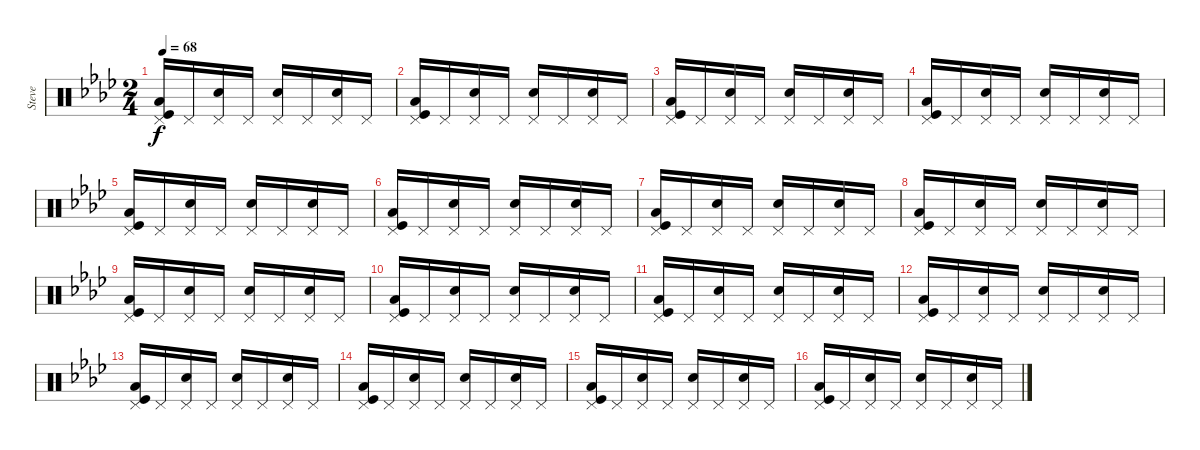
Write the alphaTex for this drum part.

\track ("Steve" "Steve") {instrument percussion}
\staff {score}
\articulation defaults
\ts (2 4)
\tempo 68
\clef neutral
\ks fminor
("Kick (hit)" "Pedal Hi-Hat (hit)" "Low Floor Tom (hit)").16{dy f} "Pedal Hi-Hat (hit)".16 ("Electric Snare (hit)" "Pedal Hi-Hat (hit)").16 "Pedal Hi-Hat (hit)".16 ("Electric Snare (hit)" "Pedal Hi-Hat (hit)").16 "Pedal Hi-Hat (hit)".16 ("Electric Snare (hit)" "Pedal Hi-Hat (hit)").16 "Pedal Hi-Hat (hit)".16 |
("Kick (hit)" "Pedal Hi-Hat (hit)" "Low Floor Tom (hit)").16 "Pedal Hi-Hat (hit)".16 ("Electric Snare (hit)" "Pedal Hi-Hat (hit)").16 "Pedal Hi-Hat (hit)".16 ("Electric Snare (hit)" "Pedal Hi-Hat (hit)").16 "Pedal Hi-Hat (hit)".16 ("Electric Snare (hit)" "Pedal Hi-Hat (hit)").16 "Pedal Hi-Hat (hit)".16 |
("Kick (hit)" "Pedal Hi-Hat (hit)" "Low Floor Tom (hit)").16 "Pedal Hi-Hat (hit)".16 ("Electric Snare (hit)" "Pedal Hi-Hat (hit)").16 "Pedal Hi-Hat (hit)".16 ("Electric Snare (hit)" "Pedal Hi-Hat (hit)").16 "Pedal Hi-Hat (hit)".16 ("Electric Snare (hit)" "Pedal Hi-Hat (hit)").16 "Pedal Hi-Hat (hit)".16 |
("Kick (hit)" "Pedal Hi-Hat (hit)" "Low Floor Tom (hit)").16 "Pedal Hi-Hat (hit)".16 ("Electric Snare (hit)" "Pedal Hi-Hat (hit)").16 "Pedal Hi-Hat (hit)".16 ("Electric Snare (hit)" "Pedal Hi-Hat (hit)").16 "Pedal Hi-Hat (hit)".16 ("Electric Snare (hit)" "Pedal Hi-Hat (hit)").16 "Pedal Hi-Hat (hit)".16 |
("Kick (hit)" "Pedal Hi-Hat (hit)" "Low Floor Tom (hit)").16 "Pedal Hi-Hat (hit)".16 ("Electric Snare (hit)" "Pedal Hi-Hat (hit)").16 "Pedal Hi-Hat (hit)".16 ("Electric Snare (hit)" "Pedal Hi-Hat (hit)").16 "Pedal Hi-Hat (hit)".16 ("Electric Snare (hit)" "Pedal Hi-Hat (hit)").16 "Pedal Hi-Hat (hit)".16 |
("Kick (hit)" "Pedal Hi-Hat (hit)" "Low Floor Tom (hit)").16 "Pedal Hi-Hat (hit)".16 ("Electric Snare (hit)" "Pedal Hi-Hat (hit)").16 "Pedal Hi-Hat (hit)".16 ("Electric Snare (hit)" "Pedal Hi-Hat (hit)").16 "Pedal Hi-Hat (hit)".16 ("Electric Snare (hit)" "Pedal Hi-Hat (hit)").16 "Pedal Hi-Hat (hit)".16 |
("Kick (hit)" "Pedal Hi-Hat (hit)" "Low Floor Tom (hit)").16 "Pedal Hi-Hat (hit)".16 ("Electric Snare (hit)" "Pedal Hi-Hat (hit)").16 "Pedal Hi-Hat (hit)".16 ("Electric Snare (hit)" "Pedal Hi-Hat (hit)").16 "Pedal Hi-Hat (hit)".16 ("Electric Snare (hit)" "Pedal Hi-Hat (hit)").16 "Pedal Hi-Hat (hit)".16 |
("Kick (hit)" "Pedal Hi-Hat (hit)" "Low Floor Tom (hit)").16 "Pedal Hi-Hat (hit)".16 ("Electric Snare (hit)" "Pedal Hi-Hat (hit)").16 "Pedal Hi-Hat (hit)".16 ("Electric Snare (hit)" "Pedal Hi-Hat (hit)").16 "Pedal Hi-Hat (hit)".16 ("Electric Snare (hit)" "Pedal Hi-Hat (hit)").16 "Pedal Hi-Hat (hit)".16 |
("Kick (hit)" "Pedal Hi-Hat (hit)" "Low Floor Tom (hit)").16 "Pedal Hi-Hat (hit)".16 ("Electric Snare (hit)" "Pedal Hi-Hat (hit)").16 "Pedal Hi-Hat (hit)".16 ("Electric Snare (hit)" "Pedal Hi-Hat (hit)").16 "Pedal Hi-Hat (hit)".16 ("Electric Snare (hit)" "Pedal Hi-Hat (hit)").16 "Pedal Hi-Hat (hit)".16 |
("Kick (hit)" "Pedal Hi-Hat (hit)" "Low Floor Tom (hit)").16 "Pedal Hi-Hat (hit)".16 ("Electric Snare (hit)" "Pedal Hi-Hat (hit)").16 "Pedal Hi-Hat (hit)".16 ("Electric Snare (hit)" "Pedal Hi-Hat (hit)").16 "Pedal Hi-Hat (hit)".16 ("Electric Snare (hit)" "Pedal Hi-Hat (hit)").16 "Pedal Hi-Hat (hit)".16 |
("Kick (hit)" "Pedal Hi-Hat (hit)" "Low Floor Tom (hit)").16 "Pedal Hi-Hat (hit)".16 ("Electric Snare (hit)" "Pedal Hi-Hat (hit)").16 "Pedal Hi-Hat (hit)".16 ("Electric Snare (hit)" "Pedal Hi-Hat (hit)").16 "Pedal Hi-Hat (hit)".16 ("Electric Snare (hit)" "Pedal Hi-Hat (hit)").16 "Pedal Hi-Hat (hit)".16 |
("Kick (hit)" "Pedal Hi-Hat (hit)" "Low Floor Tom (hit)").16 "Pedal Hi-Hat (hit)".16 ("Electric Snare (hit)" "Pedal Hi-Hat (hit)").16 "Pedal Hi-Hat (hit)".16 ("Electric Snare (hit)" "Pedal Hi-Hat (hit)").16 "Pedal Hi-Hat (hit)".16 ("Electric Snare (hit)" "Pedal Hi-Hat (hit)").16 "Pedal Hi-Hat (hit)".16 |
("Kick (hit)" "Pedal Hi-Hat (hit)" "Low Floor Tom (hit)").16 "Pedal Hi-Hat (hit)".16 ("Electric Snare (hit)" "Pedal Hi-Hat (hit)").16 "Pedal Hi-Hat (hit)".16 ("Electric Snare (hit)" "Pedal Hi-Hat (hit)").16 "Pedal Hi-Hat (hit)".16 ("Electric Snare (hit)" "Pedal Hi-Hat (hit)").16 "Pedal Hi-Hat (hit)".16 |
("Kick (hit)" "Pedal Hi-Hat (hit)" "Low Floor Tom (hit)").16 "Pedal Hi-Hat (hit)".16 ("Electric Snare (hit)" "Pedal Hi-Hat (hit)").16 "Pedal Hi-Hat (hit)".16 ("Electric Snare (hit)" "Pedal Hi-Hat (hit)").16 "Pedal Hi-Hat (hit)".16 ("Electric Snare (hit)" "Pedal Hi-Hat (hit)").16 "Pedal Hi-Hat (hit)".16 |
("Kick (hit)" "Pedal Hi-Hat (hit)" "Low Floor Tom (hit)").16 "Pedal Hi-Hat (hit)".16 ("Electric Snare (hit)" "Pedal Hi-Hat (hit)").16 "Pedal Hi-Hat (hit)".16 ("Electric Snare (hit)" "Pedal Hi-Hat (hit)").16 "Pedal Hi-Hat (hit)".16 ("Electric Snare (hit)" "Pedal Hi-Hat (hit)").16 "Pedal Hi-Hat (hit)".16 |
("Kick (hit)" "Pedal Hi-Hat (hit)" "Low Floor Tom (hit)").16 "Pedal Hi-Hat (hit)".16 ("Electric Snare (hit)" "Pedal Hi-Hat (hit)").16 "Pedal Hi-Hat (hit)".16 ("Electric Snare (hit)" "Pedal Hi-Hat (hit)").16 "Pedal Hi-Hat (hit)".16 ("Electric Snare (hit)" "Pedal Hi-Hat (hit)").16 "Pedal Hi-Hat (hit)".16
